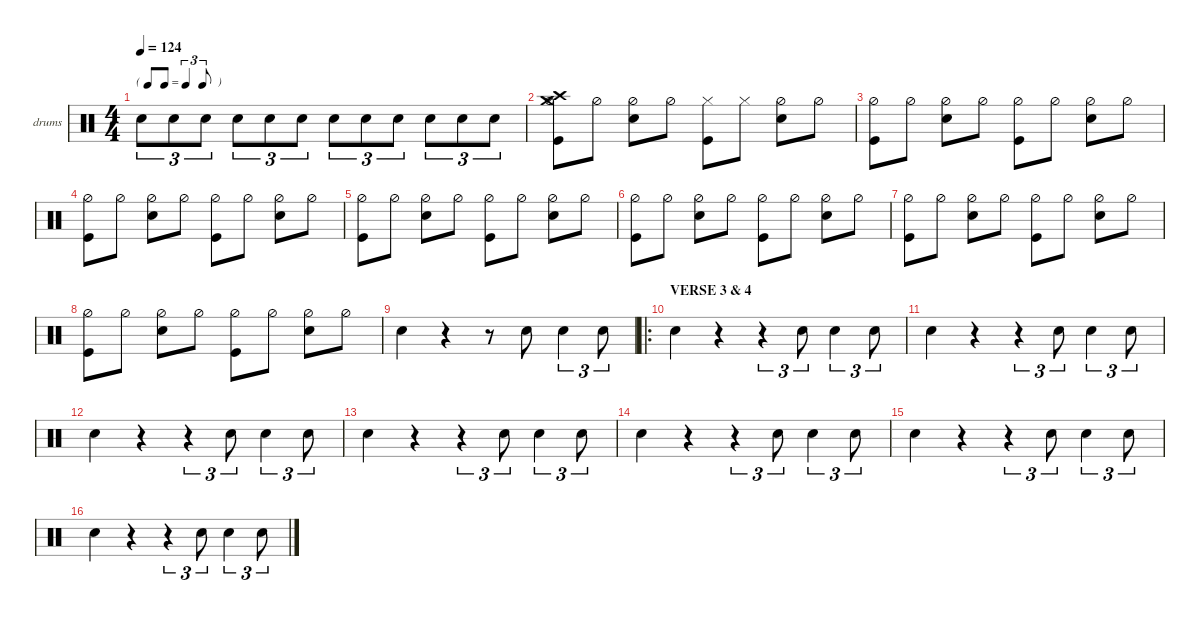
\defaultSystemsLayout 4
\hideDynamics
\bracketExtendMode nobrackets
\firstSystemTrackNameOrientation horizontal
\otherSystemsTrackNameOrientation horizontal
\track ("drums" "drums") {instrument percussion}
\staff {score}
\articulation defaults
\ts (4 4)
\tf triplet8th
\tempo 124
\clef neutral
\scale
1.06392
\ks aminor "Snare (hit) 2".8{tu (3 2) dy pp} "Snare (hit) 2".8{tu (3 2)} "Snare (hit) 2".8{tu (3 2)} "Snare (hit) 2".8{tu (3 2) dy p} "Snare (hit) 2".8{tu (3 2)} "Snare (hit) 2".8{tu (3 2)} "Snare (hit) 2".8{tu (3 2) dy mp} "Snare (hit) 2".8{tu (3 2)} "Snare (hit) 2".8{tu (3 2)} "Snare (hit) 2".8{tu (3 2) dy mf} "Snare (hit) 2".8{tu (3 2)} "Snare (hit) 2".8{tu (3 2)}
|
\scale
0.978695 ("Kick (hit)" "Hi-Hat (half)" "Crash medium (hit)" "Crash high (hit)").8 "Hi-Hat (half)".8 ("Hi-Hat (half)" "Snare (hit) 2").8 "Hi-Hat (half)".8 ("Kick (hit)" "Hi-Hat (closed)").8 "Hi-Hat (closed)".8 ("Hi-Hat (half)" "Snare (hit) 2").8 "Hi-Hat (half)".8 |
\scale
0.978695 ("Kick (hit)" "Hi-Hat (half)").8 "Hi-Hat (half)".8 ("Hi-Hat (half)" "Snare (hit) 2").8 "Hi-Hat (half)".8 ("Kick (hit)" "Hi-Hat (half)").8 "Hi-Hat (half)".8 ("Hi-Hat (half)" "Snare (hit) 2").8 "Hi-Hat (half)".8 |
\scale
0.978695 ("Kick (hit)" "Hi-Hat (half)").8 "Hi-Hat (half)".8 ("Hi-Hat (half)" "Snare (hit) 2").8 "Hi-Hat (half)".8 ("Kick (hit)" "Hi-Hat (half)").8 "Hi-Hat (half)".8 ("Hi-Hat (half)" "Snare (hit) 2").8 "Hi-Hat (half)".8 |
\scale
1.06392 ("Kick (hit)" "Hi-Hat (half)").8 "Hi-Hat (half)".8 ("Hi-Hat (half)" "Snare (hit) 2").8 "Hi-Hat (half)".8 ("Kick (hit)" "Hi-Hat (half)").8 "Hi-Hat (half)".8 ("Hi-Hat (half)" "Snare (hit) 2").8 "Hi-Hat (half)".8 |
\scale
0.978695 ("Kick (hit)" "Hi-Hat (half)").8 "Hi-Hat (half)".8 ("Hi-Hat (half)" "Snare (hit) 2").8 "Hi-Hat (half)".8 ("Kick (hit)" "Hi-Hat (half)").8 "Hi-Hat (half)".8 ("Hi-Hat (half)" "Snare (hit) 2").8 "Hi-Hat (half)".8 |
\scale
0.978695 ("Kick (hit)" "Hi-Hat (half)").8 "Hi-Hat (half)".8 ("Hi-Hat (half)" "Snare (hit) 2").8 "Hi-Hat (half)".8 ("Kick (hit)" "Hi-Hat (half)").8 "Hi-Hat (half)".8 ("Hi-Hat (half)" "Snare (hit) 2").8 "Hi-Hat (half)".8 |
\scale
0.978695 ("Kick (hit)" "Hi-Hat (half)").8 "Hi-Hat (half)".8 ("Hi-Hat (half)" "Snare (hit) 2").8 "Hi-Hat (half)".8 ("Kick (hit)" "Hi-Hat (half)").8 "Hi-Hat (half)".8 ("Hi-Hat (half)" "Snare (hit) 2").8 "Hi-Hat (half)".8 |
\scale
1.07225 "Snare (hit) 2".4 r.4 r.8 "Snare (hit) 2".8 "Snare (hit) 2".4{tu (3 2)} "Snare (hit) 2".8{tu (3 2)} |
\ro
\section ("" "VERSE 3 & 4")
\scale
0.989053 "Snare (hit) 2".4 r.4 r.4{tu (3 2)} "Snare (hit) 2".8{tu (3 2)} "Snare (hit) 2".4{tu (3 2)} "Snare (hit) 2".8{tu (3 2)} |
\scale
0.969347 "Snare (hit) 2".4 r.4 r.4{tu (3 2)} "Snare (hit) 2".8{tu (3 2)} "Snare (hit) 2".4{tu (3 2)} "Snare (hit) 2".8{tu (3 2)} |
\scale
0.969347 "Snare (hit) 2".4 r.4 r.4{tu (3 2)} "Snare (hit) 2".8{tu (3 2)} "Snare (hit) 2".4{tu (3 2)} "Snare (hit) 2".8{tu (3 2)} |
\scale
1.06392 "Snare (hit) 2".4 r.4 r.4{tu (3 2)} "Snare (hit) 2".8{tu (3 2)} "Snare (hit) 2".4{tu (3 2)} "Snare (hit) 2".8{tu (3 2)} |
\scale
0.978695 "Snare (hit) 2".4 r.4 r.4{tu (3 2)} "Snare (hit) 2".8{tu (3 2)} "Snare (hit) 2".4{tu (3 2)} "Snare (hit) 2".8{tu (3 2)} |
\scale
0.978695 "Snare (hit) 2".4 r.4 r.4{tu (3 2)} "Snare (hit) 2".8{tu (3 2)} "Snare (hit) 2".4{tu (3 2)} "Snare (hit) 2".8{tu (3 2)} |
\scale
0.978695 "Snare (hit) 2".4 r.4 r.4{tu (3 2)} "Snare (hit) 2".8{tu (3 2)} "Snare (hit) 2".4{tu (3 2)} "Snare (hit) 2".8{tu (3 2)}
